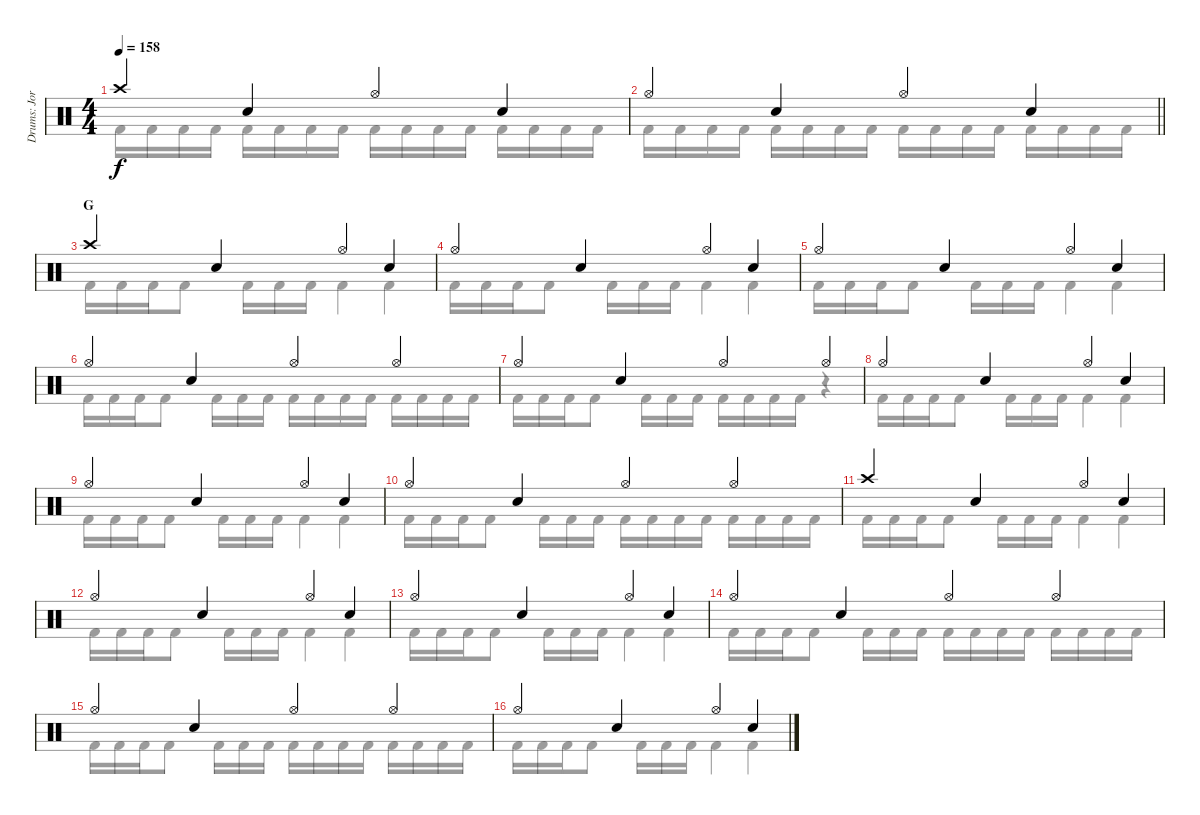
\track ("Drums: Jorg" "Drums: Jor") {instrument percussion}
\staff {score}
\articulation defaults
\voice
\ts (4 4)
\tempo 158
\clef neutral
\ks c "Crash high (hit)".4{dy f} "Snare (hit) 2".4 "Hi-Hat (open)".4 "Snare (hit) 2".4
|
\barLineRight lightlight "Hi-Hat (open)".4 "Snare (hit) 2".4 "Hi-Hat (open)".4 "Snare (hit) 2".4
|
\section ("" "G")
"Crash high (hit)".4 "Snare (hit) 2".4 "Hi-Hat (open)".4 "Snare (hit) 2".4 |
"Hi-Hat (open)".4 "Snare (hit) 2".4 "Hi-Hat (open)".4 "Snare (hit) 2".4 |
"Hi-Hat (open)".4 "Snare (hit) 2".4 "Hi-Hat (open)".4 "Snare (hit) 2".4 |
"Hi-Hat (open)".4 "Snare (hit) 2".4 "Hi-Hat (open)".4 "Hi-Hat (open)".4 |
"Hi-Hat (open)".4 "Snare (hit) 2".4 "Hi-Hat (open)".4 "Hi-Hat (open)".4 |
"Hi-Hat (open)".4 "Snare (hit) 2".4 "Hi-Hat (open)".4 "Snare (hit) 2".4 |
"Hi-Hat (open)".4 "Snare (hit) 2".4 "Hi-Hat (open)".4 "Snare (hit) 2".4 |
"Hi-Hat (open)".4 "Snare (hit) 2".4 "Hi-Hat (open)".4 "Hi-Hat (open)".4 |
"Crash high (hit)".4 "Snare (hit) 2".4 "Hi-Hat (open)".4 "Snare (hit) 2".4 |
"Hi-Hat (open)".4 "Snare (hit) 2".4 "Hi-Hat (open)".4 "Snare (hit) 2".4 |
"Hi-Hat (open)".4 "Snare (hit) 2".4 "Hi-Hat (open)".4 "Snare (hit) 2".4 |
"Hi-Hat (open)".4 "Snare (hit) 2".4 "Hi-Hat (open)".4 "Hi-Hat (open)".4 |
"Hi-Hat (open)".4 "Snare (hit) 2".4 "Hi-Hat (open)".4 "Hi-Hat (open)".4 |
"Hi-Hat (open)".4 "Snare (hit) 2".4 "Hi-Hat (open)".4 "Snare (hit) 2".4
\voice
\clef neutral
\ottava regular
\simile none
\ks c "Kick (hit) 2".16{dy f} "Kick (hit) 2".16 "Kick (hit) 2".16 "Kick (hit) 2".16 "Kick (hit) 2".16 "Kick (hit) 2".16 "Kick (hit) 2".16 "Kick (hit) 2".16 "Kick (hit) 2".16 "Kick (hit) 2".16 "Kick (hit) 2".16 "Kick (hit) 2".16 "Kick (hit) 2".16 "Kick (hit) 2".16 "Kick (hit) 2".16 "Kick (hit) 2".16
|
\barLineRight lightlight "Kick (hit) 2".16 "Kick (hit) 2".16 "Kick (hit) 2".16 "Kick (hit) 2".16 "Kick (hit) 2".16 "Kick (hit) 2".16 "Kick (hit) 2".16 "Kick (hit) 2".16 "Kick (hit) 2".16 "Kick (hit) 2".16 "Kick (hit) 2".16 "Kick (hit) 2".16 "Kick (hit) 2".16 "Kick (hit) 2".16 "Kick (hit) 2".16 "Kick (hit) 2".16
|
"Kick (hit) 2".16 "Kick (hit) 2".16 "Kick (hit) 2".16 "Kick (hit) 2".8 "Kick (hit) 2".16 "Kick (hit) 2".16 "Kick (hit) 2".16 "Kick (hit) 2".4 "Kick (hit) 2".4 |
"Kick (hit) 2".16 "Kick (hit) 2".16 "Kick (hit) 2".16 "Kick (hit) 2".8 "Kick (hit) 2".16 "Kick (hit) 2".16 "Kick (hit) 2".16 "Kick (hit) 2".4 "Kick (hit) 2".4 |
"Kick (hit) 2".16 "Kick (hit) 2".16 "Kick (hit) 2".16 "Kick (hit) 2".8 "Kick (hit) 2".16 "Kick (hit) 2".16 "Kick (hit) 2".16 "Kick (hit) 2".4 "Kick (hit) 2".4 |
"Kick (hit) 2".16 "Kick (hit) 2".16 "Kick (hit) 2".16 "Kick (hit) 2".8 "Kick (hit) 2".16 "Kick (hit) 2".16 "Kick (hit) 2".16 "Kick (hit) 2".16 "Kick (hit) 2".16 "Kick (hit) 2".16 "Kick (hit) 2".16 "Kick (hit) 2".16 "Kick (hit) 2".16 "Kick (hit) 2".16 "Kick (hit) 2".16 |
"Kick (hit) 2".16 "Kick (hit) 2".16 "Kick (hit) 2".16 "Kick (hit) 2".8 "Kick (hit) 2".16 "Kick (hit) 2".16 "Kick (hit) 2".16 "Kick (hit) 2".16 "Kick (hit) 2".16 "Kick (hit) 2".16 "Kick (hit) 2".16 r.4 |
"Kick (hit) 2".16 "Kick (hit) 2".16 "Kick (hit) 2".16 "Kick (hit) 2".8 "Kick (hit) 2".16 "Kick (hit) 2".16 "Kick (hit) 2".16 "Kick (hit) 2".4 "Kick (hit) 2".4 |
"Kick (hit) 2".16 "Kick (hit) 2".16 "Kick (hit) 2".16 "Kick (hit) 2".8 "Kick (hit) 2".16 "Kick (hit) 2".16 "Kick (hit) 2".16 "Kick (hit) 2".4 "Kick (hit) 2".4 |
"Kick (hit) 2".16 "Kick (hit) 2".16 "Kick (hit) 2".16 "Kick (hit) 2".8 "Kick (hit) 2".16 "Kick (hit) 2".16 "Kick (hit) 2".16 "Kick (hit) 2".16 "Kick (hit) 2".16 "Kick (hit) 2".16 "Kick (hit) 2".16 "Kick (hit) 2".16 "Kick (hit) 2".16 "Kick (hit) 2".16 "Kick (hit) 2".16 |
"Kick (hit) 2".16 "Kick (hit) 2".16 "Kick (hit) 2".16 "Kick (hit) 2".8 "Kick (hit) 2".16 "Kick (hit) 2".16 "Kick (hit) 2".16 "Kick (hit) 2".4 "Kick (hit) 2".4 |
"Kick (hit) 2".16 "Kick (hit) 2".16 "Kick (hit) 2".16 "Kick (hit) 2".8 "Kick (hit) 2".16 "Kick (hit) 2".16 "Kick (hit) 2".16 "Kick (hit) 2".4 "Kick (hit) 2".4 |
"Kick (hit) 2".16 "Kick (hit) 2".16 "Kick (hit) 2".16 "Kick (hit) 2".8 "Kick (hit) 2".16 "Kick (hit) 2".16 "Kick (hit) 2".16 "Kick (hit) 2".4 "Kick (hit) 2".4 |
"Kick (hit) 2".16 "Kick (hit) 2".16 "Kick (hit) 2".16 "Kick (hit) 2".8 "Kick (hit) 2".16 "Kick (hit) 2".16 "Kick (hit) 2".16 "Kick (hit) 2".16 "Kick (hit) 2".16 "Kick (hit) 2".16 "Kick (hit) 2".16 "Kick (hit) 2".16 "Kick (hit) 2".16 "Kick (hit) 2".16 "Kick (hit) 2".16 |
"Kick (hit) 2".16 "Kick (hit) 2".16 "Kick (hit) 2".16 "Kick (hit) 2".8 "Kick (hit) 2".16 "Kick (hit) 2".16 "Kick (hit) 2".16 "Kick (hit) 2".16 "Kick (hit) 2".16 "Kick (hit) 2".16 "Kick (hit) 2".16 "Kick (hit) 2".16 "Kick (hit) 2".16 "Kick (hit) 2".16 "Kick (hit) 2".16 |
"Kick (hit) 2".16 "Kick (hit) 2".16 "Kick (hit) 2".16 "Kick (hit) 2".8 "Kick (hit) 2".16 "Kick (hit) 2".16 "Kick (hit) 2".16 "Kick (hit) 2".4 "Kick (hit) 2".4
